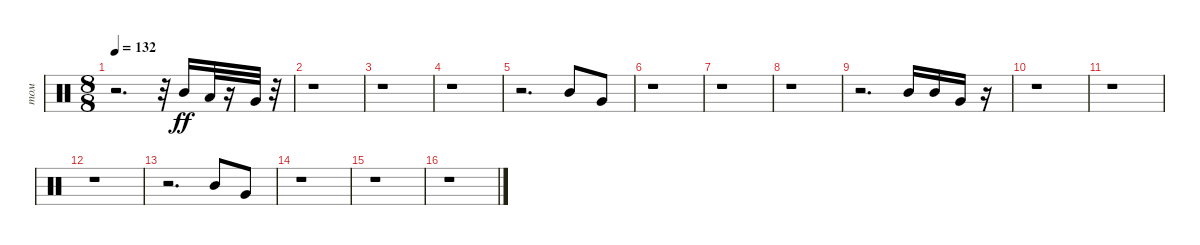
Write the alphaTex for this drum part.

\track ("том" "том") {instrument percussion}
\staff {score}
\articulation defaults
\ts (8 8)
\tempo 132
\clef neutral
\ks c
r.2{d dy ff} r.32 "Mid Tom (hit)".16 "Low Tom (hit)".32 r.16 "Very Low Tom (hit)".32 r.32 |
r.1 |
r.1 |
r.1 |
r.2{d} "Mid Tom (hit)".8 "Very Low Tom (hit)".8 |
r.1 |
r.1 |
r.1 |
r.2{d} "Mid Tom (hit)".16 "Mid Tom (hit)".16 "Very Low Tom (hit)".16 r.16 |
r.1 |
r.1 |
r.1 |
r.2{d} "Mid Tom (hit)".8 "Very Low Tom (hit)".8 |
r.1 |
r.1 |
r.1
